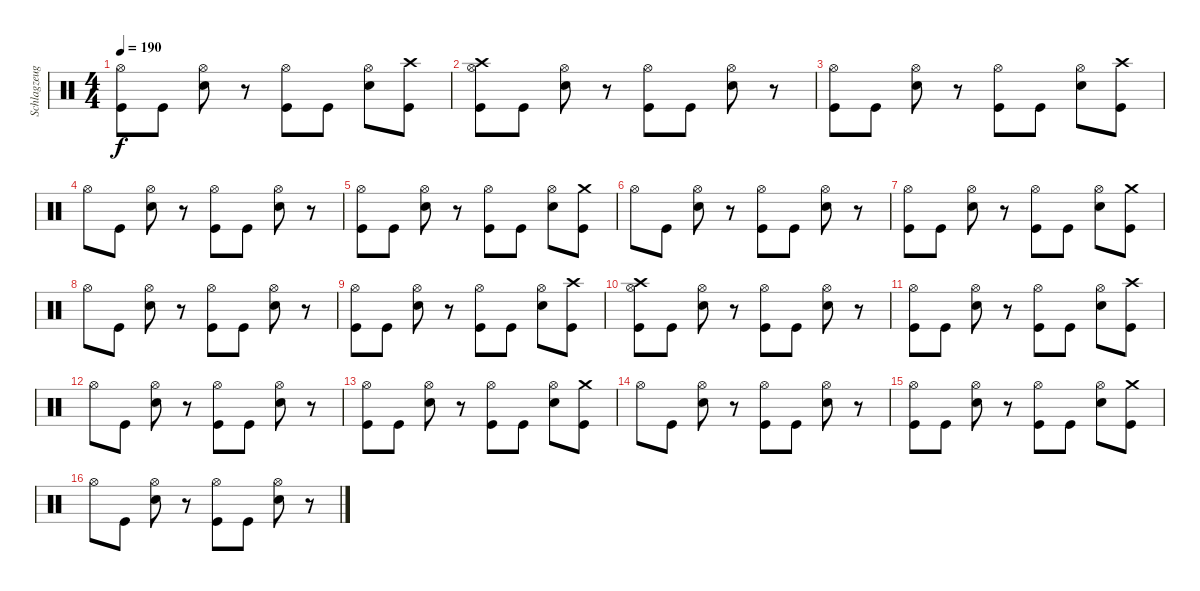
\track ("Schlagzeug" "Schlagzeug") {instrument percussion}
\staff {score}
\articulation defaults
\ts (4 4)
\tempo 190
\clef neutral
\ks c
("Kick (hit)" "Hi-Hat (open)").8{dy f} "Kick (hit)".8 ("Electric Snare (hit)" "Hi-Hat (open)").8 r.8 ("Kick (hit)" "Hi-Hat (open)").8 "Kick (hit)".8 ("Electric Snare (hit)" "Hi-Hat (open)").8 ("Kick (hit)" "Crash high (hit)").8 |
("Crash high (hit)" "Kick (hit)" "Hi-Hat (open)").8 "Kick (hit)".8 ("Electric Snare (hit)" "Hi-Hat (open)").8 r.8 ("Kick (hit)" "Hi-Hat (open)").8 "Kick (hit)".8 ("Electric Snare (hit)" "Hi-Hat (open)").8 r.8 |
("Kick (hit)" "Hi-Hat (open)").8 "Kick (hit)".8 ("Electric Snare (hit)" "Hi-Hat (open)").8 r.8 ("Kick (hit)" "Hi-Hat (open)").8 "Kick (hit)".8 ("Electric Snare (hit)" "Hi-Hat (open)").8 ("Kick (hit)" "Crash high (hit)").8 |
"Hi-Hat (open)".8 "Kick (hit)".8 ("Electric Snare (hit)" "Hi-Hat (open)").8 r.8 ("Kick (hit)" "Hi-Hat (open)").8 "Kick (hit)".8 ("Electric Snare (hit)" "Hi-Hat (open)").8 r.8 |
("Kick (hit)" "Hi-Hat (open)").8 "Kick (hit)".8 ("Electric Snare (hit)" "Hi-Hat (open)").8 r.8 ("Kick (hit)" "Hi-Hat (open)").8 "Kick (hit)".8 ("Electric Snare (hit)" "Hi-Hat (open)").8 ("Crash medium (hit)" "Kick (hit)").8 |
"Hi-Hat (open)".8 "Kick (hit)".8 ("Electric Snare (hit)" "Hi-Hat (open)").8 r.8 ("Kick (hit)" "Hi-Hat (open)").8 "Kick (hit)".8 ("Electric Snare (hit)" "Hi-Hat (open)").8 r.8 |
("Kick (hit)" "Hi-Hat (open)").8 "Kick (hit)".8 ("Electric Snare (hit)" "Hi-Hat (open)").8 r.8 ("Kick (hit)" "Hi-Hat (open)").8 "Kick (hit)".8 ("Electric Snare (hit)" "Hi-Hat (open)").8 ("Kick (hit)" "Crash medium (hit)").8 |
"Hi-Hat (open)".8 "Kick (hit)".8 ("Electric Snare (hit)" "Hi-Hat (open)").8 r.8 ("Kick (hit)" "Hi-Hat (open)").8 "Kick (hit)".8 ("Electric Snare (hit)" "Hi-Hat (open)").8 r.8 |
("Kick (hit)" "Hi-Hat (open)").8 "Kick (hit)".8 ("Electric Snare (hit)" "Hi-Hat (open)").8 r.8 ("Kick (hit)" "Hi-Hat (open)").8 "Kick (hit)".8 ("Electric Snare (hit)" "Hi-Hat (open)").8 ("Kick (hit)" "Crash high (hit)").8 |
("Crash high (hit)" "Kick (hit)" "Hi-Hat (open)").8 "Kick (hit)".8 ("Electric Snare (hit)" "Hi-Hat (open)").8 r.8 ("Kick (hit)" "Hi-Hat (open)").8 "Kick (hit)".8 ("Electric Snare (hit)" "Hi-Hat (open)").8 r.8 |
("Kick (hit)" "Hi-Hat (open)").8 "Kick (hit)".8 ("Electric Snare (hit)" "Hi-Hat (open)").8 r.8 ("Kick (hit)" "Hi-Hat (open)").8 "Kick (hit)".8 ("Electric Snare (hit)" "Hi-Hat (open)").8 ("Kick (hit)" "Crash high (hit)").8 |
"Hi-Hat (open)".8 "Kick (hit)".8 ("Electric Snare (hit)" "Hi-Hat (open)").8 r.8 ("Kick (hit)" "Hi-Hat (open)").8 "Kick (hit)".8 ("Electric Snare (hit)" "Hi-Hat (open)").8 r.8 |
("Kick (hit)" "Hi-Hat (open)").8 "Kick (hit)".8 ("Electric Snare (hit)" "Hi-Hat (open)").8 r.8 ("Kick (hit)" "Hi-Hat (open)").8 "Kick (hit)".8 ("Electric Snare (hit)" "Hi-Hat (open)").8 ("Crash medium (hit)" "Kick (hit)").8 |
"Hi-Hat (open)".8 "Kick (hit)".8 ("Electric Snare (hit)" "Hi-Hat (open)").8 r.8 ("Kick (hit)" "Hi-Hat (open)").8 "Kick (hit)".8 ("Electric Snare (hit)" "Hi-Hat (open)").8 r.8 |
("Kick (hit)" "Hi-Hat (open)").8 "Kick (hit)".8 ("Electric Snare (hit)" "Hi-Hat (open)").8 r.8 ("Kick (hit)" "Hi-Hat (open)").8 "Kick (hit)".8 ("Electric Snare (hit)" "Hi-Hat (open)").8 ("Kick (hit)" "Crash medium (hit)").8 |
"Hi-Hat (open)".8 "Kick (hit)".8 ("Electric Snare (hit)" "Hi-Hat (open)").8 r.8 ("Kick (hit)" "Hi-Hat (open)").8 "Kick (hit)".8 ("Electric Snare (hit)" "Hi-Hat (open)").8 r.8
